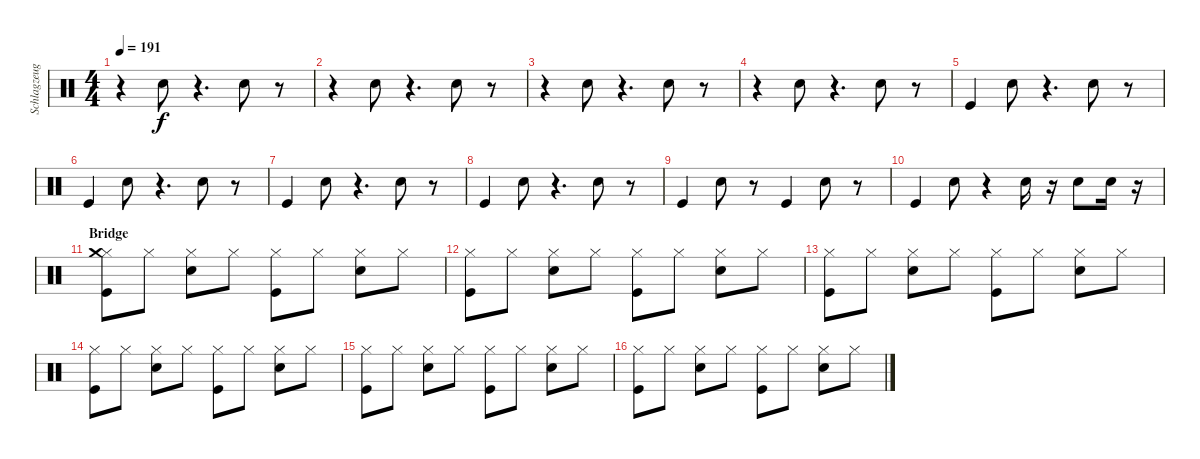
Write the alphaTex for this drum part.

\track ("Schlagzeug - Bela B." "Schlagzeug") {instrument percussion}
\staff {score}
\articulation defaults
\ts (4 4)
\tempo 191
\clef neutral
\ks c
r.4{dy f} "Electric Snare (hit)".8 r.4{d} "Electric Snare (hit)".8 r.8 |
r.4 "Electric Snare (hit)".8 r.4{d} "Electric Snare (hit)".8 r.8 |
r.4 "Electric Snare (hit)".8 r.4{d} "Electric Snare (hit)".8 r.8 |
r.4 "Electric Snare (hit)".8 r.4{d} "Electric Snare (hit)".8 r.8 |
"Kick (hit)".4 "Electric Snare (hit)".8 r.4{d} "Electric Snare (hit)".8 r.8 |
"Kick (hit)".4 "Electric Snare (hit)".8 r.4{d} "Electric Snare (hit)".8 r.8 |
"Kick (hit)".4 "Electric Snare (hit)".8 r.4{d} "Electric Snare (hit)".8 r.8 |
"Kick (hit)".4 "Electric Snare (hit)".8 r.4{d} "Electric Snare (hit)".8 r.8 |
"Kick (hit)".4 "Electric Snare (hit)".8 r.8 "Kick (hit)".4 "Electric Snare (hit)".8 r.8 |
"Kick (hit)".4 "Electric Snare (hit)".8 r.4 "Electric Snare (hit)".16 r.16 "Electric Snare (hit)".8 "Electric Snare (hit)".16 r.16 |
\section ("" "Bridge")
("Kick (hit)" "Hi-Hat (closed)" "Crash medium (hit)").8 "Hi-Hat (closed)".8 ("Hi-Hat (closed)" "Electric Snare (hit)").8 "Hi-Hat (closed)".8 ("Hi-Hat (closed)" "Kick (hit)").8 "Hi-Hat (closed)".8 ("Hi-Hat (closed)" "Electric Snare (hit)").8 "Hi-Hat (closed)".8 |
("Kick (hit)" "Hi-Hat (closed)").8 "Hi-Hat (closed)".8 ("Hi-Hat (closed)" "Electric Snare (hit)").8 "Hi-Hat (closed)".8 ("Hi-Hat (closed)" "Kick (hit)").8 "Hi-Hat (closed)".8 ("Hi-Hat (closed)" "Electric Snare (hit)").8 "Hi-Hat (closed)".8 |
("Kick (hit)" "Hi-Hat (closed)").8 "Hi-Hat (closed)".8 ("Hi-Hat (closed)" "Electric Snare (hit)").8 "Hi-Hat (closed)".8 ("Hi-Hat (closed)" "Kick (hit)").8 "Hi-Hat (closed)".8 ("Hi-Hat (closed)" "Electric Snare (hit)").8 "Hi-Hat (closed)".8 |
("Kick (hit)" "Hi-Hat (closed)").8 "Hi-Hat (closed)".8 ("Hi-Hat (closed)" "Electric Snare (hit)").8 "Hi-Hat (closed)".8 ("Hi-Hat (closed)" "Kick (hit)").8 "Hi-Hat (closed)".8 ("Hi-Hat (closed)" "Electric Snare (hit)").8 "Hi-Hat (closed)".8 |
("Kick (hit)" "Hi-Hat (closed)").8 "Hi-Hat (closed)".8 ("Hi-Hat (closed)" "Electric Snare (hit)").8 "Hi-Hat (closed)".8 ("Hi-Hat (closed)" "Kick (hit)").8 "Hi-Hat (closed)".8 ("Hi-Hat (closed)" "Electric Snare (hit)").8 "Hi-Hat (closed)".8 |
("Kick (hit)" "Hi-Hat (closed)").8 "Hi-Hat (closed)".8 ("Hi-Hat (closed)" "Electric Snare (hit)").8 "Hi-Hat (closed)".8 ("Hi-Hat (closed)" "Kick (hit)").8 "Hi-Hat (closed)".8 ("Hi-Hat (closed)" "Electric Snare (hit)").8 "Hi-Hat (closed)".8
